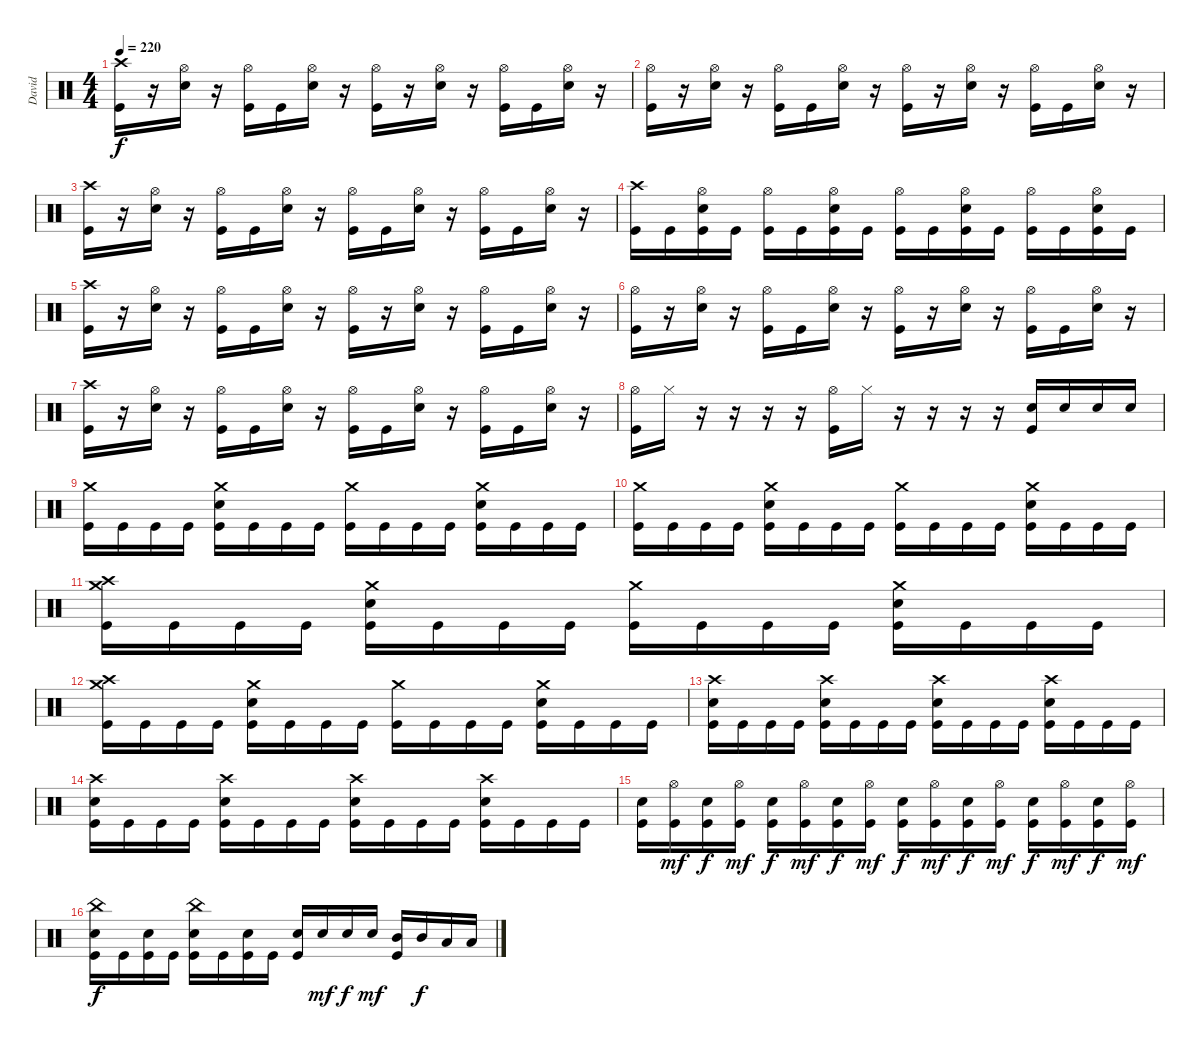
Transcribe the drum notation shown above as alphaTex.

\track ("David" "David") {instrument percussion}
\staff {score}
\articulation defaults
\ts (4 4)
\tempo 220
\clef neutral
\ks c
("Crash high (hit)" "Kick (hit)").16{dy f} r.16 ("Hi-Hat (open)" "Electric Snare (hit)").16 r.16 ("Hi-Hat (open)" "Kick (hit)").16 "Kick (hit)".16 ("Hi-Hat (open)" "Electric Snare (hit)").16 r.16 ("Hi-Hat (open)" "Kick (hit)").16 r.16 ("Hi-Hat (open)" "Electric Snare (hit)").16 r.16 ("Hi-Hat (open)" "Kick (hit)").16 "Kick (hit)".16 ("Hi-Hat (open)" "Electric Snare (hit)").16 r.16 |
("Hi-Hat (open)" "Kick (hit)").16 r.16 ("Hi-Hat (open)" "Electric Snare (hit)").16 r.16 ("Hi-Hat (open)" "Kick (hit)").16 "Kick (hit)".16 ("Hi-Hat (open)" "Electric Snare (hit)").16 r.16 ("Hi-Hat (open)" "Kick (hit)").16 r.16 ("Hi-Hat (open)" "Electric Snare (hit)").16 r.16 ("Hi-Hat (open)" "Kick (hit)").16 "Kick (hit)".16 ("Hi-Hat (open)" "Electric Snare (hit)").16 r.16 |
("Crash high (hit)" "Kick (hit)").16 r.16 ("Hi-Hat (open)" "Electric Snare (hit)").16 r.16 ("Hi-Hat (open)" "Kick (hit)").16 "Kick (hit)".16 ("Hi-Hat (open)" "Electric Snare (hit)").16 r.16 ("Hi-Hat (open)" "Kick (hit)").16 "Kick (hit)".16 ("Hi-Hat (open)" "Electric Snare (hit)").16 r.16 ("Hi-Hat (open)" "Kick (hit)").16 "Kick (hit)".16 ("Hi-Hat (open)" "Electric Snare (hit)").16 r.16 |
("Crash high (hit)" "Kick (hit)").16 "Kick (hit)".16 ("Hi-Hat (open)" "Electric Snare (hit)" "Kick (hit)").16 "Kick (hit)".16 ("Hi-Hat (open)" "Kick (hit)").16 "Kick (hit)".16 ("Hi-Hat (open)" "Electric Snare (hit)" "Kick (hit)").16 "Kick (hit)".16 ("Hi-Hat (open)" "Kick (hit)").16 "Kick (hit)".16 ("Hi-Hat (open)" "Electric Snare (hit)" "Kick (hit)").16 "Kick (hit)".16 ("Hi-Hat (open)" "Kick (hit)").16 "Kick (hit)".16 ("Hi-Hat (open)" "Electric Snare (hit)" "Kick (hit)").16 "Kick (hit)".16 |
("Crash high (hit)" "Kick (hit)").16 r.16 ("Hi-Hat (open)" "Electric Snare (hit)").16 r.16 ("Hi-Hat (open)" "Kick (hit)").16 "Kick (hit)".16 ("Hi-Hat (open)" "Electric Snare (hit)").16 r.16 ("Hi-Hat (open)" "Kick (hit)").16 r.16 ("Hi-Hat (open)" "Electric Snare (hit)").16 r.16 ("Hi-Hat (open)" "Kick (hit)").16 "Kick (hit)".16 ("Hi-Hat (open)" "Electric Snare (hit)").16 r.16 |
("Hi-Hat (open)" "Kick (hit)").16 r.16 ("Hi-Hat (open)" "Electric Snare (hit)").16 r.16 ("Hi-Hat (open)" "Kick (hit)").16 "Kick (hit)".16 ("Hi-Hat (open)" "Electric Snare (hit)").16 r.16 ("Hi-Hat (open)" "Kick (hit)").16 r.16 ("Hi-Hat (open)" "Electric Snare (hit)").16 r.16 ("Hi-Hat (open)" "Kick (hit)").16 "Kick (hit)".16 ("Hi-Hat (open)" "Electric Snare (hit)").16 r.16 |
("Crash high (hit)" "Kick (hit)").16 r.16 ("Hi-Hat (open)" "Electric Snare (hit)").16 r.16 ("Hi-Hat (open)" "Kick (hit)").16 "Kick (hit)".16 ("Hi-Hat (open)" "Electric Snare (hit)").16 r.16 ("Hi-Hat (open)" "Kick (hit)").16 "Kick (hit)".16 ("Hi-Hat (open)" "Electric Snare (hit)").16 r.16 ("Hi-Hat (open)" "Kick (hit)").16 "Kick (hit)".16 ("Hi-Hat (open)" "Electric Snare (hit)").16 r.16 |
("Hi-Hat (open)" "Kick (hit)").16 "Hi-Hat (closed)".16 r.16 r.16 r.16 r.16 ("Hi-Hat (open)" "Kick (hit)").16 "Hi-Hat (closed)".16 r.16 r.16 r.16 r.16 ("Electric Snare (hit)" "Kick (hit)").16 "Electric Snare (hit)".16 "Electric Snare (hit)".16 "Electric Snare (hit)".16 |
("Crash medium (hit)" "Kick (hit)").16 "Kick (hit)".16 "Kick (hit)".16 "Kick (hit)".16 ("Crash medium (hit)" "Electric Snare (hit)" "Kick (hit)").16 "Kick (hit)".16 "Kick (hit)".16 "Kick (hit)".16 ("Crash medium (hit)" "Kick (hit)").16 "Kick (hit)".16 "Kick (hit)".16 "Kick (hit)".16 ("Crash medium (hit)" "Electric Snare (hit)" "Kick (hit)").16 "Kick (hit)".16 "Kick (hit)".16 "Kick (hit)".16 |
("Crash medium (hit)" "Kick (hit)").16 "Kick (hit)".16 "Kick (hit)".16 "Kick (hit)".16 ("Crash medium (hit)" "Electric Snare (hit)" "Kick (hit)").16 "Kick (hit)".16 "Kick (hit)".16 "Kick (hit)".16 ("Crash medium (hit)" "Kick (hit)").16 "Kick (hit)".16 "Kick (hit)".16 "Kick (hit)".16 ("Crash medium (hit)" "Electric Snare (hit)" "Kick (hit)").16 "Kick (hit)".16 "Kick (hit)".16 "Kick (hit)".16 |
("Crash high (hit)" "Crash medium (hit)" "Kick (hit)").16 "Kick (hit)".16 "Kick (hit)".16 "Kick (hit)".16 ("Crash medium (hit)" "Electric Snare (hit)" "Kick (hit)").16 "Kick (hit)".16 "Kick (hit)".16 "Kick (hit)".16 ("Crash medium (hit)" "Kick (hit)").16 "Kick (hit)".16 "Kick (hit)".16 "Kick (hit)".16 ("Crash medium (hit)" "Electric Snare (hit)" "Kick (hit)").16 "Kick (hit)".16 "Kick (hit)".16 "Kick (hit)".16 |
("Crash high (hit)" "Crash medium (hit)" "Kick (hit)").16 "Kick (hit)".16 "Kick (hit)".16 "Kick (hit)".16 ("Crash medium (hit)" "Electric Snare (hit)" "Kick (hit)").16 "Kick (hit)".16 "Kick (hit)".16 "Kick (hit)".16 ("Crash medium (hit)" "Kick (hit)").16 "Kick (hit)".16 "Kick (hit)".16 "Kick (hit)".16 ("Crash medium (hit)" "Electric Snare (hit)" "Kick (hit)").16 "Kick (hit)".16 "Kick (hit)".16 "Kick (hit)".16 |
("Crash high (hit)" "Electric Snare (hit)" "Kick (hit)").16 "Kick (hit)".16 "Kick (hit)".16 "Kick (hit)".16 ("Crash high (hit)" "Electric Snare (hit)" "Kick (hit)").16 "Kick (hit)".16 "Kick (hit)".16 "Kick (hit)".16 ("Crash high (hit)" "Electric Snare (hit)" "Kick (hit)").16 "Kick (hit)".16 "Kick (hit)".16 "Kick (hit)".16 ("Crash high (hit)" "Electric Snare (hit)" "Kick (hit)").16 "Kick (hit)".16 "Kick (hit)".16 "Kick (hit)".16 |
("Crash high (hit)" "Electric Snare (hit)" "Kick (hit)").16 "Kick (hit)".16 "Kick (hit)".16 "Kick (hit)".16 ("Crash high (hit)" "Electric Snare (hit)" "Kick (hit)").16 "Kick (hit)".16 "Kick (hit)".16 "Kick (hit)".16 ("Crash high (hit)" "Electric Snare (hit)" "Kick (hit)").16 "Kick (hit)".16 "Kick (hit)".16 "Kick (hit)".16 ("Crash high (hit)" "Electric Snare (hit)" "Kick (hit)").16 "Kick (hit)".16 "Kick (hit)".16 "Kick (hit)".16 |
("Electric Snare (hit)" "Kick (hit)").16 ("Hi-Hat (open)" "Kick (hit)").16{dy mf} ("Electric Snare (hit)" "Kick (hit)").16{dy f} ("Hi-Hat (open)" "Kick (hit)").16{dy mf} ("Electric Snare (hit)" "Kick (hit)").16{dy f} ("Hi-Hat (open)" "Kick (hit)").16{dy mf} ("Electric Snare (hit)" "Kick (hit)").16{dy f} ("Hi-Hat (open)" "Kick (hit)").16{dy mf} ("Electric Snare (hit)" "Kick (hit)").16{dy f} ("Hi-Hat (open)" "Kick (hit)").16{dy mf} ("Electric Snare (hit)" "Kick (hit)").16{dy f} ("Hi-Hat (open)" "Kick (hit)").16{dy mf} ("Electric Snare (hit)" "Kick (hit)").16{dy f} ("Hi-Hat (open)" "Kick (hit)").16{dy mf} ("Electric Snare (hit)" "Kick (hit)").16{dy f} ("Hi-Hat (open)" "Kick (hit)").16{dy mf} |
("China (hit)" "Electric Snare (hit)" "Kick (hit)").16{dy f} "Kick (hit)".16 ("Electric Snare (hit)" "Kick (hit)").16 "Kick (hit)".16 ("China (hit)" "Electric Snare (hit)" "Kick (hit)").16 "Kick (hit)".16 ("Electric Snare (hit)" "Kick (hit)").16 "Kick (hit)".16 ("Electric Snare (hit)" "Kick (hit)").16 "Electric Snare (hit)".16{dy mf} "Electric Snare (hit)".16{dy f} "Electric Snare (hit)".16{dy mf} ("Mid Tom (hit)" "Kick (hit)").16 "Mid Tom (hit)".16{dy f} "Low Tom (hit)".16 "Low Tom (hit)".16
